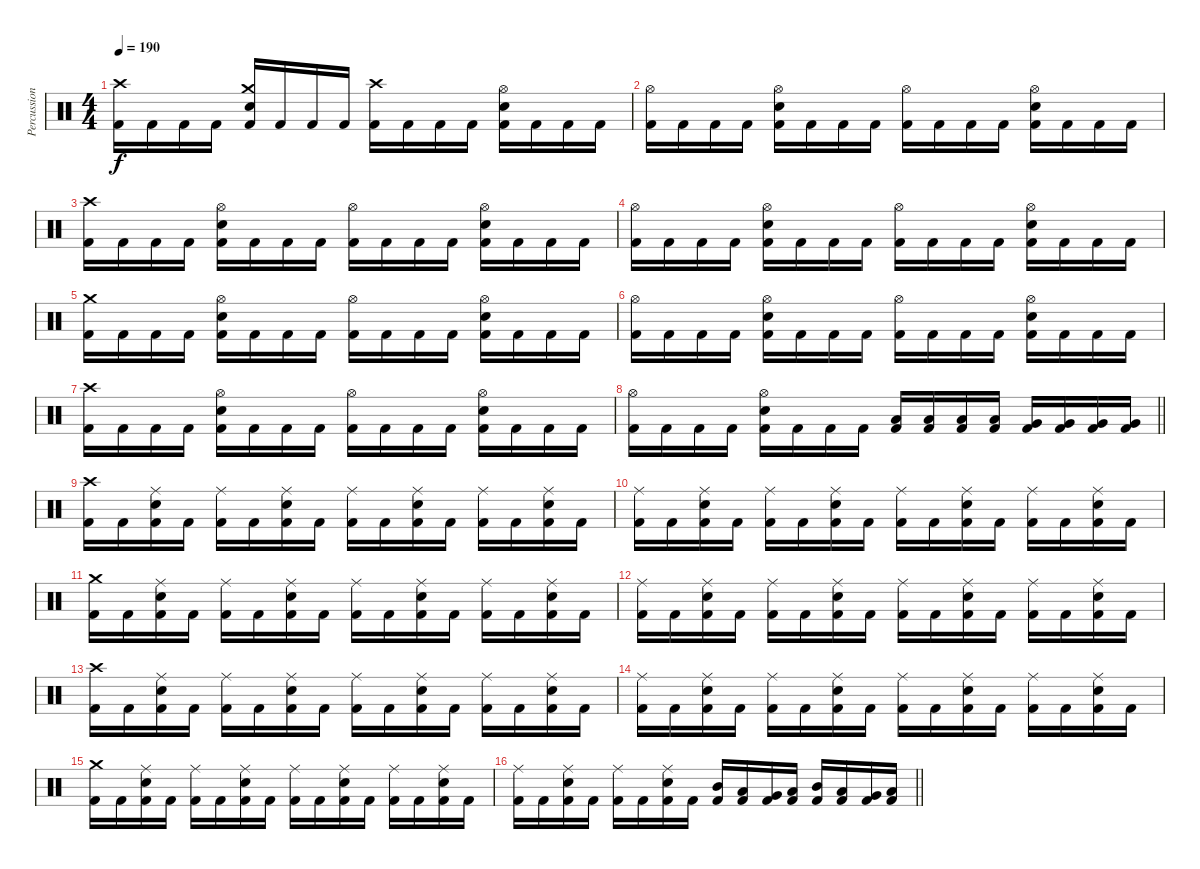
\track ("Percussion" "Percussion") {instrument percussion}
\staff {score}
\articulation defaults
\ts (4 4)
\tempo 190
\clef neutral
\ks c
("Crash high (hit)" "Kick (hit) 2").16{dy f} "Kick (hit) 2".16 "Kick (hit) 2".16 "Kick (hit) 2".16 ("Crash medium (hit)" "Snare (hit) 2" "Kick (hit) 2").16 "Kick (hit) 2".16 "Kick (hit) 2".16 "Kick (hit) 2".16 ("Crash high (hit)" "Kick (hit) 2").16 "Kick (hit) 2".16 "Kick (hit) 2".16 "Kick (hit) 2".16 ("Hi-Hat (open)" "Snare (hit) 2" "Kick (hit) 2").16 "Kick (hit) 2".16 "Kick (hit) 2".16 "Kick (hit) 2".16 |
("Hi-Hat (open)" "Kick (hit) 2").16 "Kick (hit) 2".16 "Kick (hit) 2".16 "Kick (hit) 2".16 ("Hi-Hat (open)" "Snare (hit) 2" "Kick (hit) 2").16 "Kick (hit) 2".16 "Kick (hit) 2".16 "Kick (hit) 2".16 ("Hi-Hat (open)" "Kick (hit) 2").16 "Kick (hit) 2".16 "Kick (hit) 2".16 "Kick (hit) 2".16 ("Hi-Hat (open)" "Snare (hit) 2" "Kick (hit) 2").16 "Kick (hit) 2".16 "Kick (hit) 2".16 "Kick (hit) 2".16 |
("Crash high (hit)" "Kick (hit) 2").16 "Kick (hit) 2".16 "Kick (hit) 2".16 "Kick (hit) 2".16 ("Hi-Hat (open)" "Snare (hit) 2" "Kick (hit) 2").16 "Kick (hit) 2".16 "Kick (hit) 2".16 "Kick (hit) 2".16 ("Hi-Hat (open)" "Kick (hit) 2").16 "Kick (hit) 2".16 "Kick (hit) 2".16 "Kick (hit) 2".16 ("Hi-Hat (open)" "Snare (hit) 2" "Kick (hit) 2").16 "Kick (hit) 2".16 "Kick (hit) 2".16 "Kick (hit) 2".16 |
("Hi-Hat (open)" "Kick (hit) 2").16 "Kick (hit) 2".16 "Kick (hit) 2".16 "Kick (hit) 2".16 ("Hi-Hat (open)" "Snare (hit) 2" "Kick (hit) 2").16 "Kick (hit) 2".16 "Kick (hit) 2".16 "Kick (hit) 2".16 ("Hi-Hat (open)" "Kick (hit) 2").16 "Kick (hit) 2".16 "Kick (hit) 2".16 "Kick (hit) 2".16 ("Hi-Hat (open)" "Snare (hit) 2" "Kick (hit) 2").16 "Kick (hit) 2".16 "Kick (hit) 2".16 "Kick (hit) 2".16 |
("Crash medium (hit)" "Kick (hit) 2").16 "Kick (hit) 2".16 "Kick (hit) 2".16 "Kick (hit) 2".16 ("Hi-Hat (open)" "Snare (hit) 2" "Kick (hit) 2").16 "Kick (hit) 2".16 "Kick (hit) 2".16 "Kick (hit) 2".16 ("Hi-Hat (open)" "Kick (hit) 2").16 "Kick (hit) 2".16 "Kick (hit) 2".16 "Kick (hit) 2".16 ("Hi-Hat (open)" "Snare (hit) 2" "Kick (hit) 2").16 "Kick (hit) 2".16 "Kick (hit) 2".16 "Kick (hit) 2".16 |
("Hi-Hat (open)" "Kick (hit) 2").16 "Kick (hit) 2".16 "Kick (hit) 2".16 "Kick (hit) 2".16 ("Hi-Hat (open)" "Snare (hit) 2" "Kick (hit) 2").16 "Kick (hit) 2".16 "Kick (hit) 2".16 "Kick (hit) 2".16 ("Hi-Hat (open)" "Kick (hit) 2").16 "Kick (hit) 2".16 "Kick (hit) 2".16 "Kick (hit) 2".16 ("Hi-Hat (open)" "Snare (hit) 2" "Kick (hit) 2").16 "Kick (hit) 2".16 "Kick (hit) 2".16 "Kick (hit) 2".16 |
("Crash high (hit)" "Kick (hit) 2").16 "Kick (hit) 2".16 "Kick (hit) 2".16 "Kick (hit) 2".16 ("Hi-Hat (open)" "Snare (hit) 2" "Kick (hit) 2").16 "Kick (hit) 2".16 "Kick (hit) 2".16 "Kick (hit) 2".16 ("Hi-Hat (open)" "Kick (hit) 2").16 "Kick (hit) 2".16 "Kick (hit) 2".16 "Kick (hit) 2".16 ("Hi-Hat (open)" "Snare (hit) 2" "Kick (hit) 2").16 "Kick (hit) 2".16 "Kick (hit) 2".16 "Kick (hit) 2".16 |
\barLineRight lightlight
("Hi-Hat (open)" "Kick (hit) 2").16 "Kick (hit) 2".16 "Kick (hit) 2".16 "Kick (hit) 2".16 ("Hi-Hat (open)" "Snare (hit) 2" "Kick (hit) 2").16 "Kick (hit) 2".16 "Kick (hit) 2".16 "Kick (hit) 2".16 ("Low Tom (hit)" "Kick (hit) 2").16 ("Low Tom (hit)" "Kick (hit) 2").16 ("Low Tom (hit)" "Kick (hit) 2").16 ("Low Tom (hit)" "Kick (hit) 2").16 ("Very Low Tom (hit)" "Kick (hit) 2").16 ("Very Low Tom (hit)" "Kick (hit) 2").16 ("Very Low Tom (hit)" "Kick (hit) 2").16 ("Very Low Tom (hit)" "Kick (hit) 2").16 |
("Crash high (hit)" "Kick (hit) 2").16 "Kick (hit) 2".16 ("Ride (middle)" "Snare (hit) 2" "Kick (hit) 2").16 "Kick (hit) 2".16 ("Ride (middle)" "Kick (hit) 2").16 "Kick (hit) 2".16 ("Ride (middle)" "Snare (hit) 2" "Kick (hit) 2").16 "Kick (hit) 2".16 ("Ride (middle)" "Kick (hit) 2").16 "Kick (hit) 2".16 ("Ride (middle)" "Snare (hit) 2" "Kick (hit) 2").16 "Kick (hit) 2".16 ("Ride (middle)" "Kick (hit) 2").16 "Kick (hit) 2".16 ("Ride (middle)" "Snare (hit) 2" "Kick (hit) 2").16 "Kick (hit) 2".16 |
("Ride (middle)" "Kick (hit) 2").16 "Kick (hit) 2".16 ("Ride (middle)" "Snare (hit) 2" "Kick (hit) 2").16 "Kick (hit) 2".16 ("Ride (middle)" "Kick (hit) 2").16 "Kick (hit) 2".16 ("Ride (middle)" "Snare (hit) 2" "Kick (hit) 2").16 "Kick (hit) 2".16 ("Ride (middle)" "Kick (hit) 2").16 "Kick (hit) 2".16 ("Ride (middle)" "Snare (hit) 2" "Kick (hit) 2").16 "Kick (hit) 2".16 ("Ride (middle)" "Kick (hit) 2").16 "Kick (hit) 2".16 ("Ride (middle)" "Snare (hit) 2" "Kick (hit) 2").16 "Kick (hit) 2".16 |
("Crash medium (hit)" "Kick (hit) 2").16 "Kick (hit) 2".16 ("Ride (middle)" "Snare (hit) 2" "Kick (hit) 2").16 "Kick (hit) 2".16 ("Ride (middle)" "Kick (hit) 2").16 "Kick (hit) 2".16 ("Ride (middle)" "Snare (hit) 2" "Kick (hit) 2").16 "Kick (hit) 2".16 ("Ride (middle)" "Kick (hit) 2").16 "Kick (hit) 2".16 ("Ride (middle)" "Snare (hit) 2" "Kick (hit) 2").16 "Kick (hit) 2".16 ("Ride (middle)" "Kick (hit) 2").16 "Kick (hit) 2".16 ("Ride (middle)" "Snare (hit) 2" "Kick (hit) 2").16 "Kick (hit) 2".16 |
("Ride (middle)" "Kick (hit) 2").16 "Kick (hit) 2".16 ("Ride (middle)" "Snare (hit) 2" "Kick (hit) 2").16 "Kick (hit) 2".16 ("Ride (middle)" "Kick (hit) 2").16 "Kick (hit) 2".16 ("Ride (middle)" "Snare (hit) 2" "Kick (hit) 2").16 "Kick (hit) 2".16 ("Ride (middle)" "Kick (hit) 2").16 "Kick (hit) 2".16 ("Ride (middle)" "Snare (hit) 2" "Kick (hit) 2").16 "Kick (hit) 2".16 ("Ride (middle)" "Kick (hit) 2").16 "Kick (hit) 2".16 ("Ride (middle)" "Snare (hit) 2" "Kick (hit) 2").16 "Kick (hit) 2".16 |
("Crash high (hit)" "Kick (hit) 2").16 "Kick (hit) 2".16 ("Ride (middle)" "Snare (hit) 2" "Kick (hit) 2").16 "Kick (hit) 2".16 ("Ride (middle)" "Kick (hit) 2").16 "Kick (hit) 2".16 ("Ride (middle)" "Snare (hit) 2" "Kick (hit) 2").16 "Kick (hit) 2".16 ("Ride (middle)" "Kick (hit) 2").16 "Kick (hit) 2".16 ("Ride (middle)" "Snare (hit) 2" "Kick (hit) 2").16 "Kick (hit) 2".16 ("Ride (middle)" "Kick (hit) 2").16 "Kick (hit) 2".16 ("Ride (middle)" "Snare (hit) 2" "Kick (hit) 2").16 "Kick (hit) 2".16 |
("Ride (middle)" "Kick (hit) 2").16 "Kick (hit) 2".16 ("Ride (middle)" "Snare (hit) 2" "Kick (hit) 2").16 "Kick (hit) 2".16 ("Ride (middle)" "Kick (hit) 2").16 "Kick (hit) 2".16 ("Ride (middle)" "Snare (hit) 2" "Kick (hit) 2").16 "Kick (hit) 2".16 ("Ride (middle)" "Kick (hit) 2").16 "Kick (hit) 2".16 ("Ride (middle)" "Snare (hit) 2" "Kick (hit) 2").16 "Kick (hit) 2".16 ("Ride (middle)" "Kick (hit) 2").16 "Kick (hit) 2".16 ("Ride (middle)" "Snare (hit) 2" "Kick (hit) 2").16 "Kick (hit) 2".16 |
("Crash medium (hit)" "Kick (hit) 2").16 "Kick (hit) 2".16 ("Ride (middle)" "Snare (hit) 2" "Kick (hit) 2").16 "Kick (hit) 2".16 ("Ride (middle)" "Kick (hit) 2").16 "Kick (hit) 2".16 ("Ride (middle)" "Snare (hit) 2" "Kick (hit) 2").16 "Kick (hit) 2".16 ("Ride (middle)" "Kick (hit) 2").16 "Kick (hit) 2".16 ("Ride (middle)" "Snare (hit) 2" "Kick (hit) 2").16 "Kick (hit) 2".16 ("Ride (middle)" "Kick (hit) 2").16 "Kick (hit) 2".16 ("Ride (middle)" "Snare (hit) 2" "Kick (hit) 2").16 "Kick (hit) 2".16 |
\barLineRight lightlight
("Ride (middle)" "Kick (hit) 2").16 "Kick (hit) 2".16 ("Ride (middle)" "Snare (hit) 2" "Kick (hit) 2").16 "Kick (hit) 2".16 ("Ride (middle)" "Kick (hit) 2").16 "Kick (hit) 2".16 ("Ride (middle)" "Snare (hit) 2" "Kick (hit) 2").16 "Kick (hit) 2".16 ("Mid Tom (hit)" "Kick (hit) 2").16 ("Low Tom (hit)" "Kick (hit) 2").16 ("Very Low Tom (hit)" "Kick (hit) 2").16 ("Low Floor Tom (hit)" "Kick (hit) 2").16 ("Mid Tom (hit)" "Kick (hit) 2").16 ("Low Tom (hit)" "Kick (hit) 2").16 ("Very Low Tom (hit)" "Kick (hit) 2").16 ("Low Floor Tom (hit)" "Kick (hit) 2").16
